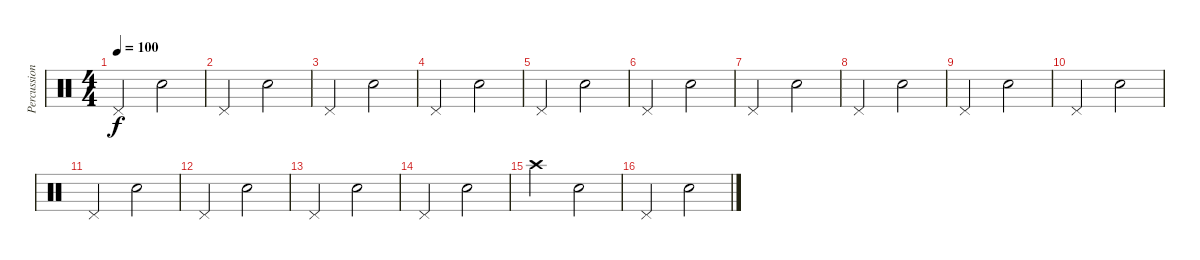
\track ("Percussioni" "Percussion") {instrument percussion}
\staff {score}
\articulation defaults
\ts (4 4)
\tempo 100
\clef neutral
\ks c "Pedal Hi-Hat (hit)".2{dy f} "Snare (hit) 2".2
|
"Pedal Hi-Hat (hit)".2 "Snare (hit) 2".2 |
"Pedal Hi-Hat (hit)".2 "Snare (hit) 2".2 |
"Pedal Hi-Hat (hit)".2 "Snare (hit) 2".2 |
"Pedal Hi-Hat (hit)".2 "Snare (hit) 2".2 |
"Pedal Hi-Hat (hit)".2 "Snare (hit) 2".2 |
"Pedal Hi-Hat (hit)".2 "Snare (hit) 2".2 |
"Pedal Hi-Hat (hit)".2 "Snare (hit) 2".2 |
"Pedal Hi-Hat (hit)".2 "Snare (hit) 2".2 |
"Pedal Hi-Hat (hit)".2 "Snare (hit) 2".2 |
"Pedal Hi-Hat (hit)".2 "Snare (hit) 2".2 |
"Pedal Hi-Hat (hit)".2 "Snare (hit) 2".2 |
"Pedal Hi-Hat (hit)".2 "Snare (hit) 2".2 |
"Pedal Hi-Hat (hit)".2 "Snare (hit) 2".2 |
"Crash high (hit)".2 "Snare (hit) 2".2 |
"Pedal Hi-Hat (hit)".2 "Snare (hit) 2".2
